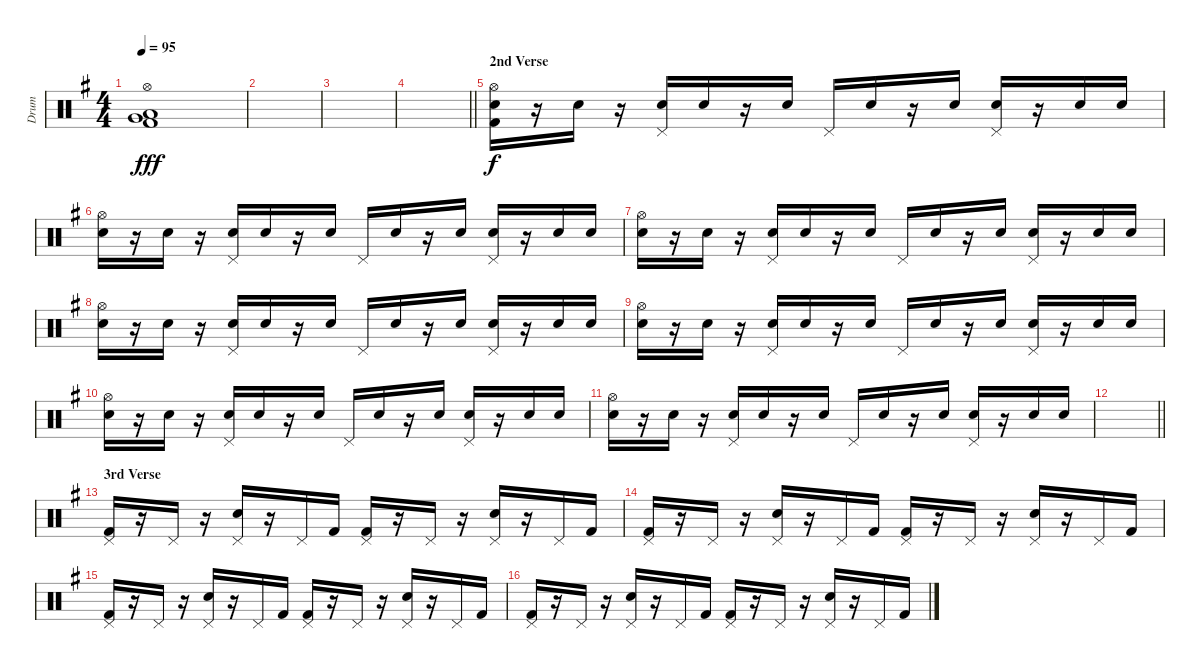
\track ("Drum" "Drum") {instrument percussion}
\staff {score}
\articulation defaults
\ts (4 4)
\tempo 95
\clef neutral
\ks g
("Hi-Hat (open)" "Low Floor Tom (hit)" "Very Low Tom (hit)" "Kick (hit) 2").1{dy fff} |
|
|
\barLineRight lightlight
|
\section ("" "2nd Verse")
("Hi-Hat (open)" "Electric Snare (hit)" "Kick (hit) 2").16{dy f} r.16 "Electric Snare (hit)".16 r.16 ("Pedal Hi-Hat (hit)" "Electric Snare (hit)").16 "Electric Snare (hit)".16 r.16 "Electric Snare (hit)".16 "Pedal Hi-Hat (hit)".16 "Electric Snare (hit)".16 r.16 "Electric Snare (hit)".16 ("Pedal Hi-Hat (hit)" "Electric Snare (hit)").16 r.16 "Electric Snare (hit)".16 "Electric Snare (hit)".16 |
("Hi-Hat (open)" "Electric Snare (hit)").16 r.16 "Electric Snare (hit)".16 r.16 ("Pedal Hi-Hat (hit)" "Electric Snare (hit)").16 "Electric Snare (hit)".16 r.16 "Electric Snare (hit)".16 "Pedal Hi-Hat (hit)".16 "Electric Snare (hit)".16 r.16 "Electric Snare (hit)".16 ("Pedal Hi-Hat (hit)" "Electric Snare (hit)").16 r.16 "Electric Snare (hit)".16 "Electric Snare (hit)".16 |
("Hi-Hat (open)" "Electric Snare (hit)").16 r.16 "Electric Snare (hit)".16 r.16 ("Pedal Hi-Hat (hit)" "Electric Snare (hit)").16 "Electric Snare (hit)".16 r.16 "Electric Snare (hit)".16 "Pedal Hi-Hat (hit)".16 "Electric Snare (hit)".16 r.16 "Electric Snare (hit)".16 ("Pedal Hi-Hat (hit)" "Electric Snare (hit)").16 r.16 "Electric Snare (hit)".16 "Electric Snare (hit)".16 |
("Hi-Hat (open)" "Electric Snare (hit)").16 r.16 "Electric Snare (hit)".16 r.16 ("Pedal Hi-Hat (hit)" "Electric Snare (hit)").16 "Electric Snare (hit)".16 r.16 "Electric Snare (hit)".16 "Pedal Hi-Hat (hit)".16 "Electric Snare (hit)".16 r.16 "Electric Snare (hit)".16 ("Pedal Hi-Hat (hit)" "Electric Snare (hit)").16 r.16 "Electric Snare (hit)".16 "Electric Snare (hit)".16 |
("Hi-Hat (open)" "Electric Snare (hit)").16 r.16 "Electric Snare (hit)".16 r.16 ("Pedal Hi-Hat (hit)" "Electric Snare (hit)").16 "Electric Snare (hit)".16 r.16 "Electric Snare (hit)".16 "Pedal Hi-Hat (hit)".16 "Electric Snare (hit)".16 r.16 "Electric Snare (hit)".16 ("Pedal Hi-Hat (hit)" "Electric Snare (hit)").16 r.16 "Electric Snare (hit)".16 "Electric Snare (hit)".16 |
("Hi-Hat (open)" "Electric Snare (hit)").16 r.16 "Electric Snare (hit)".16 r.16 ("Pedal Hi-Hat (hit)" "Electric Snare (hit)").16 "Electric Snare (hit)".16 r.16 "Electric Snare (hit)".16 "Pedal Hi-Hat (hit)".16 "Electric Snare (hit)".16 r.16 "Electric Snare (hit)".16 ("Pedal Hi-Hat (hit)" "Electric Snare (hit)").16 r.16 "Electric Snare (hit)".16 "Electric Snare (hit)".16 |
("Hi-Hat (open)" "Electric Snare (hit)").16 r.16 "Electric Snare (hit)".16 r.16 ("Pedal Hi-Hat (hit)" "Electric Snare (hit)").16 "Electric Snare (hit)".16 r.16 "Electric Snare (hit)".16 "Pedal Hi-Hat (hit)".16 "Electric Snare (hit)".16 r.16 "Electric Snare (hit)".16 ("Pedal Hi-Hat (hit)" "Electric Snare (hit)").16 r.16 "Electric Snare (hit)".16 "Electric Snare (hit)".16 |
\barLineRight lightlight
|
\section ("" "3rd Verse")
("Pedal Hi-Hat (hit)" "Kick (hit) 2").16 r.16 "Pedal Hi-Hat (hit)".16 r.16 ("Pedal Hi-Hat (hit)" "Electric Snare (hit)").16 r.16 "Pedal Hi-Hat (hit)".16 "Kick (hit) 2".16 ("Pedal Hi-Hat (hit)" "Kick (hit) 2").16 r.16 "Pedal Hi-Hat (hit)".16 r.16 ("Pedal Hi-Hat (hit)" "Electric Snare (hit)").16 r.16 "Pedal Hi-Hat (hit)".16 "Kick (hit) 2".16 |
("Pedal Hi-Hat (hit)" "Kick (hit) 2").16 r.16 "Pedal Hi-Hat (hit)".16 r.16 ("Pedal Hi-Hat (hit)" "Electric Snare (hit)").16 r.16 "Pedal Hi-Hat (hit)".16 "Kick (hit) 2".16 ("Pedal Hi-Hat (hit)" "Kick (hit) 2").16 r.16 "Pedal Hi-Hat (hit)".16 r.16 ("Pedal Hi-Hat (hit)" "Electric Snare (hit)").16 r.16 "Pedal Hi-Hat (hit)".16 "Kick (hit) 2".16 |
("Pedal Hi-Hat (hit)" "Kick (hit) 2").16 r.16 "Pedal Hi-Hat (hit)".16 r.16 ("Pedal Hi-Hat (hit)" "Electric Snare (hit)").16 r.16 "Pedal Hi-Hat (hit)".16 "Kick (hit) 2".16 ("Pedal Hi-Hat (hit)" "Kick (hit) 2").16 r.16 "Pedal Hi-Hat (hit)".16 r.16 ("Pedal Hi-Hat (hit)" "Electric Snare (hit)").16 r.16 "Pedal Hi-Hat (hit)".16 "Kick (hit) 2".16 |
("Pedal Hi-Hat (hit)" "Kick (hit) 2").16 r.16 "Pedal Hi-Hat (hit)".16 r.16 ("Pedal Hi-Hat (hit)" "Electric Snare (hit)").16 r.16 "Pedal Hi-Hat (hit)".16 "Kick (hit) 2".16 ("Pedal Hi-Hat (hit)" "Kick (hit) 2").16 r.16 "Pedal Hi-Hat (hit)".16 r.16 ("Pedal Hi-Hat (hit)" "Electric Snare (hit)").16 r.16 "Pedal Hi-Hat (hit)".16 "Kick (hit) 2".16
